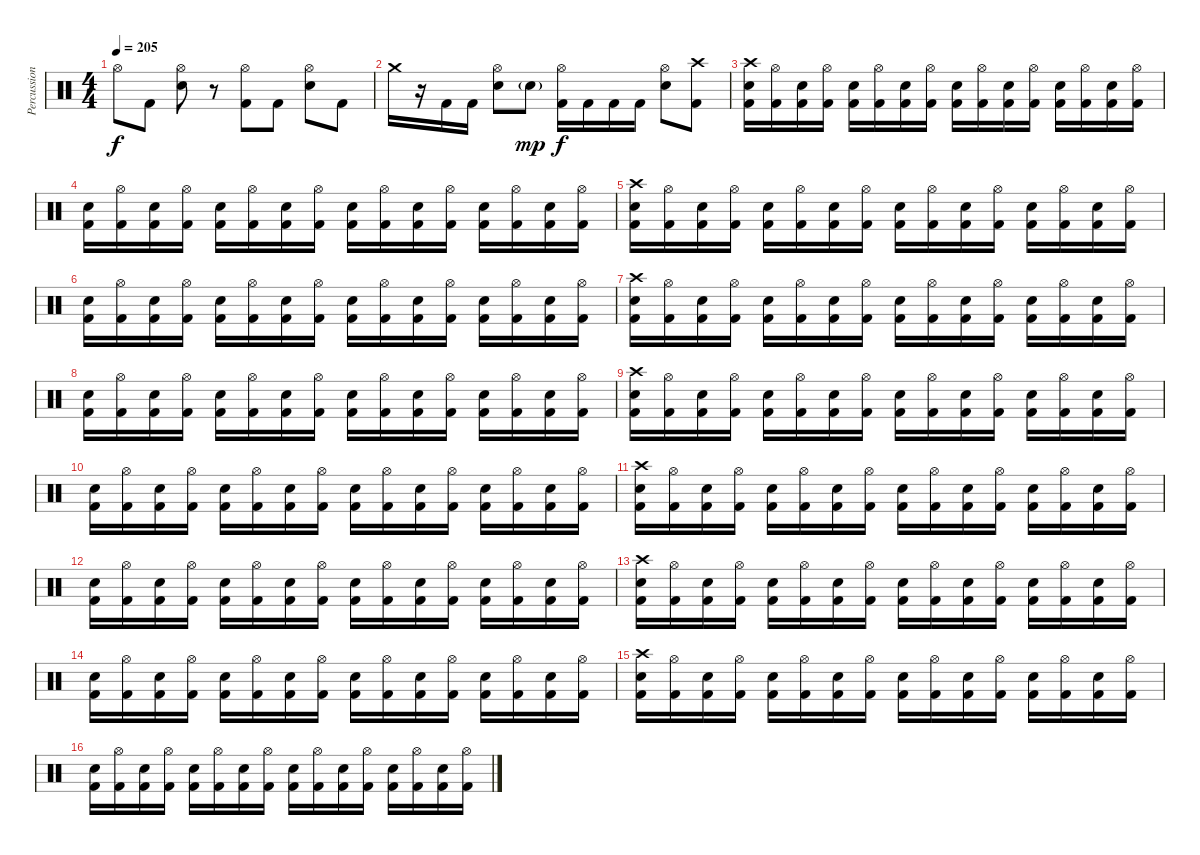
\track ("Percussion" "Percussion") {instrument percussion}
\staff {score}
\articulation defaults
\ts (4 4)
\tempo 205
\clef neutral
\ks c "Hi-Hat (open)".8{dy f} "Kick (hit) 2".8
("Hi-Hat (open)" "Electric Snare (hit)").8 r.8 ("Hi-Hat (open)" "Kick (hit) 2").8 "Kick (hit) 2".8 ("Hi-Hat (open)" "Electric Snare (hit)").8 "Kick (hit) 2".8 |
"Crash medium (hit)".16 r.16 "Kick (hit) 2".16 "Kick (hit) 2".16 ("Hi-Hat (open)" "Electric Snare (hit)").8 "Electric Snare (hit)"{g}.8{dy mp} ("Hi-Hat (open)" "Kick (hit) 2").16{dy f} "Kick (hit) 2".16 "Kick (hit) 2".16 "Kick (hit) 2".16 ("Hi-Hat (open)" "Electric Snare (hit)").8 ("Crash high (hit)" "Kick (hit) 2").8 |
("Crash high (hit)" "Electric Snare (hit)" "Kick (hit) 2").16 ("Hi-Hat (open)" "Kick (hit) 2").16 ("Electric Snare (hit)" "Kick (hit) 2").16 ("Hi-Hat (open)" "Kick (hit) 2").16 ("Electric Snare (hit)" "Kick (hit) 2").16 ("Hi-Hat (open)" "Kick (hit) 2").16 ("Electric Snare (hit)" "Kick (hit) 2").16 ("Hi-Hat (open)" "Kick (hit) 2").16 ("Electric Snare (hit)" "Kick (hit) 2").16 ("Hi-Hat (open)" "Kick (hit) 2").16 ("Electric Snare (hit)" "Kick (hit) 2").16 ("Hi-Hat (open)" "Kick (hit) 2").16 ("Electric Snare (hit)" "Kick (hit) 2").16 ("Hi-Hat (open)" "Kick (hit) 2").16 ("Electric Snare (hit)" "Kick (hit) 2").16 ("Hi-Hat (open)" "Kick (hit) 2").16 |
("Electric Snare (hit)" "Kick (hit) 2").16 ("Hi-Hat (open)" "Kick (hit) 2").16 ("Electric Snare (hit)" "Kick (hit) 2").16 ("Hi-Hat (open)" "Kick (hit) 2").16 ("Electric Snare (hit)" "Kick (hit) 2").16 ("Hi-Hat (open)" "Kick (hit) 2").16 ("Electric Snare (hit)" "Kick (hit) 2").16 ("Hi-Hat (open)" "Kick (hit) 2").16 ("Electric Snare (hit)" "Kick (hit) 2").16 ("Hi-Hat (open)" "Kick (hit) 2").16 ("Electric Snare (hit)" "Kick (hit) 2").16 ("Hi-Hat (open)" "Kick (hit) 2").16 ("Electric Snare (hit)" "Kick (hit) 2").16 ("Hi-Hat (open)" "Kick (hit) 2").16 ("Electric Snare (hit)" "Kick (hit) 2").16 ("Hi-Hat (open)" "Kick (hit) 2").16 |
("Crash high (hit)" "Electric Snare (hit)" "Kick (hit) 2").16 ("Hi-Hat (open)" "Kick (hit) 2").16 ("Electric Snare (hit)" "Kick (hit) 2").16 ("Hi-Hat (open)" "Kick (hit) 2").16 ("Electric Snare (hit)" "Kick (hit) 2").16 ("Hi-Hat (open)" "Kick (hit) 2").16 ("Electric Snare (hit)" "Kick (hit) 2").16 ("Hi-Hat (open)" "Kick (hit) 2").16 ("Electric Snare (hit)" "Kick (hit) 2").16 ("Hi-Hat (open)" "Kick (hit) 2").16 ("Electric Snare (hit)" "Kick (hit) 2").16 ("Hi-Hat (open)" "Kick (hit) 2").16 ("Electric Snare (hit)" "Kick (hit) 2").16 ("Hi-Hat (open)" "Kick (hit) 2").16 ("Electric Snare (hit)" "Kick (hit) 2").16 ("Hi-Hat (open)" "Kick (hit) 2").16 |
("Electric Snare (hit)" "Kick (hit) 2").16 ("Hi-Hat (open)" "Kick (hit) 2").16 ("Electric Snare (hit)" "Kick (hit) 2").16 ("Hi-Hat (open)" "Kick (hit) 2").16 ("Electric Snare (hit)" "Kick (hit) 2").16 ("Hi-Hat (open)" "Kick (hit) 2").16 ("Electric Snare (hit)" "Kick (hit) 2").16 ("Hi-Hat (open)" "Kick (hit) 2").16 ("Electric Snare (hit)" "Kick (hit) 2").16 ("Hi-Hat (open)" "Kick (hit) 2").16 ("Electric Snare (hit)" "Kick (hit) 2").16 ("Hi-Hat (open)" "Kick (hit) 2").16 ("Electric Snare (hit)" "Kick (hit) 2").16 ("Hi-Hat (open)" "Kick (hit) 2").16 ("Electric Snare (hit)" "Kick (hit) 2").16 ("Hi-Hat (open)" "Kick (hit) 2").16 |
("Crash high (hit)" "Electric Snare (hit)" "Kick (hit) 2").16 ("Hi-Hat (open)" "Kick (hit) 2").16 ("Electric Snare (hit)" "Kick (hit) 2").16 ("Hi-Hat (open)" "Kick (hit) 2").16 ("Electric Snare (hit)" "Kick (hit) 2").16 ("Hi-Hat (open)" "Kick (hit) 2").16 ("Electric Snare (hit)" "Kick (hit) 2").16 ("Hi-Hat (open)" "Kick (hit) 2").16 ("Electric Snare (hit)" "Kick (hit) 2").16 ("Hi-Hat (open)" "Kick (hit) 2").16 ("Electric Snare (hit)" "Kick (hit) 2").16 ("Hi-Hat (open)" "Kick (hit) 2").16 ("Electric Snare (hit)" "Kick (hit) 2").16 ("Hi-Hat (open)" "Kick (hit) 2").16 ("Electric Snare (hit)" "Kick (hit) 2").16 ("Hi-Hat (open)" "Kick (hit) 2").16 |
("Electric Snare (hit)" "Kick (hit) 2").16 ("Hi-Hat (open)" "Kick (hit) 2").16 ("Electric Snare (hit)" "Kick (hit) 2").16 ("Hi-Hat (open)" "Kick (hit) 2").16 ("Electric Snare (hit)" "Kick (hit) 2").16 ("Hi-Hat (open)" "Kick (hit) 2").16 ("Electric Snare (hit)" "Kick (hit) 2").16 ("Hi-Hat (open)" "Kick (hit) 2").16 ("Electric Snare (hit)" "Kick (hit) 2").16 ("Hi-Hat (open)" "Kick (hit) 2").16 ("Electric Snare (hit)" "Kick (hit) 2").16 ("Hi-Hat (open)" "Kick (hit) 2").16 ("Electric Snare (hit)" "Kick (hit) 2").16 ("Hi-Hat (open)" "Kick (hit) 2").16 ("Electric Snare (hit)" "Kick (hit) 2").16 ("Hi-Hat (open)" "Kick (hit) 2").16 |
("Crash high (hit)" "Electric Snare (hit)" "Kick (hit) 2").16 ("Hi-Hat (open)" "Kick (hit) 2").16 ("Electric Snare (hit)" "Kick (hit) 2").16 ("Hi-Hat (open)" "Kick (hit) 2").16 ("Electric Snare (hit)" "Kick (hit) 2").16 ("Hi-Hat (open)" "Kick (hit) 2").16 ("Electric Snare (hit)" "Kick (hit) 2").16 ("Hi-Hat (open)" "Kick (hit) 2").16 ("Electric Snare (hit)" "Kick (hit) 2").16 ("Hi-Hat (open)" "Kick (hit) 2").16 ("Electric Snare (hit)" "Kick (hit) 2").16 ("Hi-Hat (open)" "Kick (hit) 2").16 ("Electric Snare (hit)" "Kick (hit) 2").16 ("Hi-Hat (open)" "Kick (hit) 2").16 ("Electric Snare (hit)" "Kick (hit) 2").16 ("Hi-Hat (open)" "Kick (hit) 2").16 |
("Electric Snare (hit)" "Kick (hit) 2").16 ("Hi-Hat (open)" "Kick (hit) 2").16 ("Electric Snare (hit)" "Kick (hit) 2").16 ("Hi-Hat (open)" "Kick (hit) 2").16 ("Electric Snare (hit)" "Kick (hit) 2").16 ("Hi-Hat (open)" "Kick (hit) 2").16 ("Electric Snare (hit)" "Kick (hit) 2").16 ("Hi-Hat (open)" "Kick (hit) 2").16 ("Electric Snare (hit)" "Kick (hit) 2").16 ("Hi-Hat (open)" "Kick (hit) 2").16 ("Electric Snare (hit)" "Kick (hit) 2").16 ("Hi-Hat (open)" "Kick (hit) 2").16 ("Electric Snare (hit)" "Kick (hit) 2").16 ("Hi-Hat (open)" "Kick (hit) 2").16 ("Electric Snare (hit)" "Kick (hit) 2").16 ("Hi-Hat (open)" "Kick (hit) 2").16 |
("Crash high (hit)" "Electric Snare (hit)" "Kick (hit) 2").16 ("Hi-Hat (open)" "Kick (hit) 2").16 ("Electric Snare (hit)" "Kick (hit) 2").16 ("Hi-Hat (open)" "Kick (hit) 2").16 ("Electric Snare (hit)" "Kick (hit) 2").16 ("Hi-Hat (open)" "Kick (hit) 2").16 ("Electric Snare (hit)" "Kick (hit) 2").16 ("Hi-Hat (open)" "Kick (hit) 2").16 ("Electric Snare (hit)" "Kick (hit) 2").16 ("Hi-Hat (open)" "Kick (hit) 2").16 ("Electric Snare (hit)" "Kick (hit) 2").16 ("Hi-Hat (open)" "Kick (hit) 2").16 ("Electric Snare (hit)" "Kick (hit) 2").16 ("Hi-Hat (open)" "Kick (hit) 2").16 ("Electric Snare (hit)" "Kick (hit) 2").16 ("Hi-Hat (open)" "Kick (hit) 2").16 |
("Electric Snare (hit)" "Kick (hit) 2").16 ("Hi-Hat (open)" "Kick (hit) 2").16 ("Electric Snare (hit)" "Kick (hit) 2").16 ("Hi-Hat (open)" "Kick (hit) 2").16 ("Electric Snare (hit)" "Kick (hit) 2").16 ("Hi-Hat (open)" "Kick (hit) 2").16 ("Electric Snare (hit)" "Kick (hit) 2").16 ("Hi-Hat (open)" "Kick (hit) 2").16 ("Electric Snare (hit)" "Kick (hit) 2").16 ("Hi-Hat (open)" "Kick (hit) 2").16 ("Electric Snare (hit)" "Kick (hit) 2").16 ("Hi-Hat (open)" "Kick (hit) 2").16 ("Electric Snare (hit)" "Kick (hit) 2").16 ("Hi-Hat (open)" "Kick (hit) 2").16 ("Electric Snare (hit)" "Kick (hit) 2").16 ("Hi-Hat (open)" "Kick (hit) 2").16 |
("Crash high (hit)" "Electric Snare (hit)" "Kick (hit) 2").16 ("Hi-Hat (open)" "Kick (hit) 2").16 ("Electric Snare (hit)" "Kick (hit) 2").16 ("Hi-Hat (open)" "Kick (hit) 2").16 ("Electric Snare (hit)" "Kick (hit) 2").16 ("Hi-Hat (open)" "Kick (hit) 2").16 ("Electric Snare (hit)" "Kick (hit) 2").16 ("Hi-Hat (open)" "Kick (hit) 2").16 ("Electric Snare (hit)" "Kick (hit) 2").16 ("Hi-Hat (open)" "Kick (hit) 2").16 ("Electric Snare (hit)" "Kick (hit) 2").16 ("Hi-Hat (open)" "Kick (hit) 2").16 ("Electric Snare (hit)" "Kick (hit) 2").16 ("Hi-Hat (open)" "Kick (hit) 2").16 ("Electric Snare (hit)" "Kick (hit) 2").16 ("Hi-Hat (open)" "Kick (hit) 2").16 |
("Electric Snare (hit)" "Kick (hit) 2").16 ("Hi-Hat (open)" "Kick (hit) 2").16 ("Electric Snare (hit)" "Kick (hit) 2").16 ("Hi-Hat (open)" "Kick (hit) 2").16 ("Electric Snare (hit)" "Kick (hit) 2").16 ("Hi-Hat (open)" "Kick (hit) 2").16 ("Electric Snare (hit)" "Kick (hit) 2").16 ("Hi-Hat (open)" "Kick (hit) 2").16 ("Electric Snare (hit)" "Kick (hit) 2").16 ("Hi-Hat (open)" "Kick (hit) 2").16 ("Electric Snare (hit)" "Kick (hit) 2").16 ("Hi-Hat (open)" "Kick (hit) 2").16 ("Electric Snare (hit)" "Kick (hit) 2").16 ("Hi-Hat (open)" "Kick (hit) 2").16 ("Electric Snare (hit)" "Kick (hit) 2").16 ("Hi-Hat (open)" "Kick (hit) 2").16 |
("Crash high (hit)" "Electric Snare (hit)" "Kick (hit) 2").16 ("Hi-Hat (open)" "Kick (hit) 2").16 ("Electric Snare (hit)" "Kick (hit) 2").16 ("Hi-Hat (open)" "Kick (hit) 2").16 ("Electric Snare (hit)" "Kick (hit) 2").16 ("Hi-Hat (open)" "Kick (hit) 2").16 ("Electric Snare (hit)" "Kick (hit) 2").16 ("Hi-Hat (open)" "Kick (hit) 2").16 ("Electric Snare (hit)" "Kick (hit) 2").16 ("Hi-Hat (open)" "Kick (hit) 2").16 ("Electric Snare (hit)" "Kick (hit) 2").16 ("Hi-Hat (open)" "Kick (hit) 2").16 ("Electric Snare (hit)" "Kick (hit) 2").16 ("Hi-Hat (open)" "Kick (hit) 2").16 ("Electric Snare (hit)" "Kick (hit) 2").16 ("Hi-Hat (open)" "Kick (hit) 2").16 |
("Electric Snare (hit)" "Kick (hit) 2").16 ("Hi-Hat (open)" "Kick (hit) 2").16 ("Electric Snare (hit)" "Kick (hit) 2").16 ("Hi-Hat (open)" "Kick (hit) 2").16 ("Electric Snare (hit)" "Kick (hit) 2").16 ("Hi-Hat (open)" "Kick (hit) 2").16 ("Electric Snare (hit)" "Kick (hit) 2").16 ("Hi-Hat (open)" "Kick (hit) 2").16 ("Electric Snare (hit)" "Kick (hit) 2").16 ("Hi-Hat (open)" "Kick (hit) 2").16 ("Electric Snare (hit)" "Kick (hit) 2").16 ("Hi-Hat (open)" "Kick (hit) 2").16 ("Electric Snare (hit)" "Kick (hit) 2").16 ("Hi-Hat (open)" "Kick (hit) 2").16 ("Electric Snare (hit)" "Kick (hit) 2").16 ("Hi-Hat (open)" "Kick (hit) 2").16
